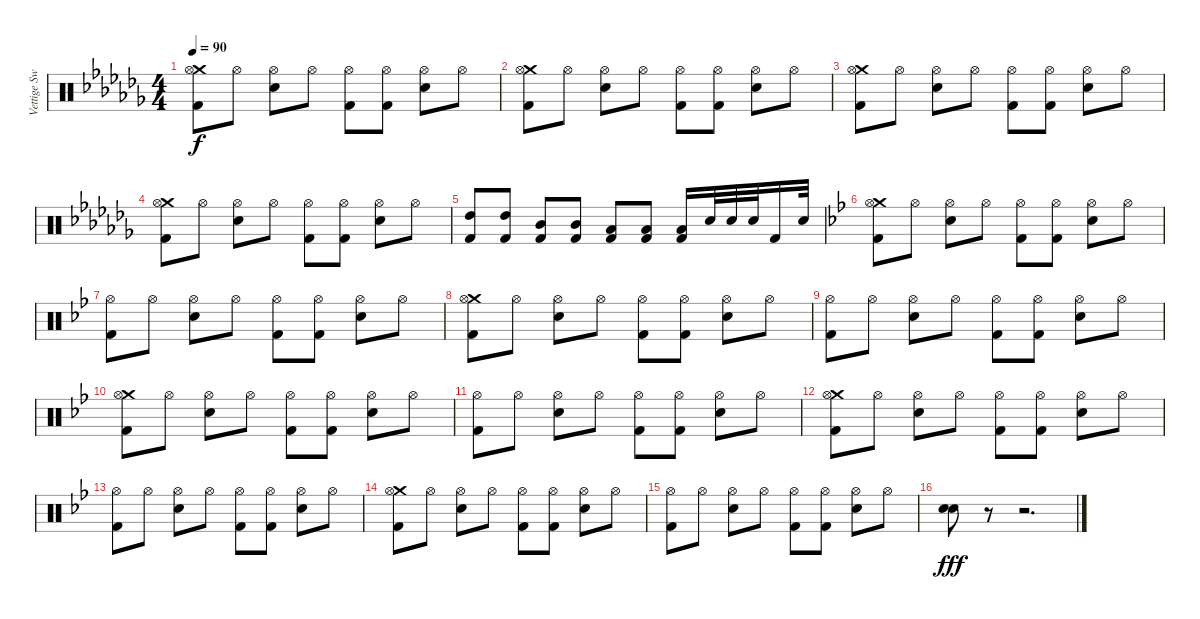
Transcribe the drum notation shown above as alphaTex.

\track ("Vettige Swa" "Vettige Sw") {instrument percussion}
\staff {score}
\articulation defaults
\ts (4 4)
\tempo 90
\clef neutral
\ks abminor
("Kick (hit) 2" "Crash medium (hit)" "Hi-Hat (open)").8{dy f} "Hi-Hat (open)".8 ("Hi-Hat (open)" "Electric Snare (hit)").8 "Hi-Hat (open)".8 ("Hi-Hat (open)" "Kick (hit) 2").8 ("Hi-Hat (open)" "Kick (hit) 2").8 ("Hi-Hat (open)" "Electric Snare (hit)").8 "Hi-Hat (open)".8 |
("Kick (hit) 2" "Crash medium (hit)" "Hi-Hat (open)").8 "Hi-Hat (open)".8 ("Hi-Hat (open)" "Electric Snare (hit)").8 "Hi-Hat (open)".8 ("Hi-Hat (open)" "Kick (hit) 2").8 ("Hi-Hat (open)" "Kick (hit) 2").8 ("Hi-Hat (open)" "Electric Snare (hit)").8 "Hi-Hat (open)".8 |
("Kick (hit) 2" "Crash medium (hit)" "Hi-Hat (open)").8 "Hi-Hat (open)".8 ("Hi-Hat (open)" "Electric Snare (hit)").8 "Hi-Hat (open)".8 ("Hi-Hat (open)" "Kick (hit) 2").8 ("Hi-Hat (open)" "Kick (hit) 2").8 ("Hi-Hat (open)" "Electric Snare (hit)").8 "Hi-Hat (open)".8 |
("Kick (hit) 2" "Crash medium (hit)" "Hi-Hat (open)").8 "Hi-Hat (open)".8 ("Hi-Hat (open)" "Electric Snare (hit)").8 "Hi-Hat (open)".8 ("Hi-Hat (open)" "Kick (hit) 2").8 ("Hi-Hat (open)" "Kick (hit) 2").8 ("Hi-Hat (open)" "Electric Snare (hit)").8 "Hi-Hat (open)".8 |
("Kick (hit) 2" "High Tom (hit)").8 ("Kick (hit) 2" "High Tom (hit)").8 ("Kick (hit) 2" "Mid Tom (hit)").8 ("Kick (hit) 2" "Mid Tom (hit)").8 ("Kick (hit) 2" "Low Tom (hit)").8 ("Kick (hit) 2" "Low Tom (hit)").8 ("Kick (hit) 2" "Low Floor Tom (hit)").16 "Electric Snare (hit)".32 "Electric Snare (hit)".32 "Electric Snare (hit)".32 "Kick (hit) 2".16 "Electric Snare (hit)".32 |
\ks gminor
("Kick (hit) 2" "Crash medium (hit)" "Hi-Hat (open)").8 "Hi-Hat (open)".8 ("Hi-Hat (open)" "Electric Snare (hit)").8 "Hi-Hat (open)".8 ("Hi-Hat (open)" "Kick (hit) 2").8 ("Hi-Hat (open)" "Kick (hit) 2").8 ("Hi-Hat (open)" "Electric Snare (hit)").8 "Hi-Hat (open)".8 |
("Kick (hit) 2" "Hi-Hat (open)").8 "Hi-Hat (open)".8 ("Hi-Hat (open)" "Electric Snare (hit)").8 "Hi-Hat (open)".8 ("Hi-Hat (open)" "Kick (hit) 2").8 ("Hi-Hat (open)" "Kick (hit) 2").8 ("Hi-Hat (open)" "Electric Snare (hit)").8 "Hi-Hat (open)".8 |
("Kick (hit) 2" "Crash medium (hit)" "Hi-Hat (open)").8 "Hi-Hat (open)".8 ("Hi-Hat (open)" "Electric Snare (hit)").8 "Hi-Hat (open)".8 ("Hi-Hat (open)" "Kick (hit) 2").8 ("Hi-Hat (open)" "Kick (hit) 2").8 ("Hi-Hat (open)" "Electric Snare (hit)").8 "Hi-Hat (open)".8 |
("Kick (hit) 2" "Hi-Hat (open)").8 "Hi-Hat (open)".8 ("Hi-Hat (open)" "Electric Snare (hit)").8 "Hi-Hat (open)".8 ("Hi-Hat (open)" "Kick (hit) 2").8 ("Hi-Hat (open)" "Kick (hit) 2").8 ("Hi-Hat (open)" "Electric Snare (hit)").8 "Hi-Hat (open)".8 |
("Kick (hit) 2" "Crash medium (hit)" "Hi-Hat (open)").8 "Hi-Hat (open)".8 ("Hi-Hat (open)" "Electric Snare (hit)").8 "Hi-Hat (open)".8 ("Hi-Hat (open)" "Kick (hit) 2").8 ("Hi-Hat (open)" "Kick (hit) 2").8 ("Hi-Hat (open)" "Electric Snare (hit)").8 "Hi-Hat (open)".8 |
("Kick (hit) 2" "Hi-Hat (open)").8 "Hi-Hat (open)".8 ("Hi-Hat (open)" "Electric Snare (hit)").8 "Hi-Hat (open)".8 ("Hi-Hat (open)" "Kick (hit) 2").8 ("Hi-Hat (open)" "Kick (hit) 2").8 ("Hi-Hat (open)" "Electric Snare (hit)").8 "Hi-Hat (open)".8 |
("Kick (hit) 2" "Crash medium (hit)" "Hi-Hat (open)").8 "Hi-Hat (open)".8 ("Hi-Hat (open)" "Electric Snare (hit)").8 "Hi-Hat (open)".8 ("Hi-Hat (open)" "Kick (hit) 2").8 ("Hi-Hat (open)" "Kick (hit) 2").8 ("Hi-Hat (open)" "Electric Snare (hit)").8 "Hi-Hat (open)".8 |
("Kick (hit) 2" "Hi-Hat (open)").8 "Hi-Hat (open)".8 ("Hi-Hat (open)" "Electric Snare (hit)").8 "Hi-Hat (open)".8 ("Hi-Hat (open)" "Kick (hit) 2").8 ("Hi-Hat (open)" "Kick (hit) 2").8 ("Hi-Hat (open)" "Electric Snare (hit)").8 "Hi-Hat (open)".8 |
("Kick (hit) 2" "Crash medium (hit)" "Hi-Hat (open)").8 "Hi-Hat (open)".8 ("Hi-Hat (open)" "Electric Snare (hit)").8 "Hi-Hat (open)".8 ("Hi-Hat (open)" "Kick (hit) 2").8 ("Hi-Hat (open)" "Kick (hit) 2").8 ("Hi-Hat (open)" "Electric Snare (hit)").8 "Hi-Hat (open)".8 |
("Kick (hit) 2" "Hi-Hat (open)").8 "Hi-Hat (open)".8 ("Hi-Hat (open)" "Electric Snare (hit)").8 "Hi-Hat (open)".8 ("Hi-Hat (open)" "Kick (hit) 2").8 ("Hi-Hat (open)" "Kick (hit) 2").8 ("Hi-Hat (open)" "Electric Snare (hit)").8 "Hi-Hat (open)".8 |
("Electric Snare (hit)" "Electric Snare (hit)").8{dy fff} r.8 r.2{d}
